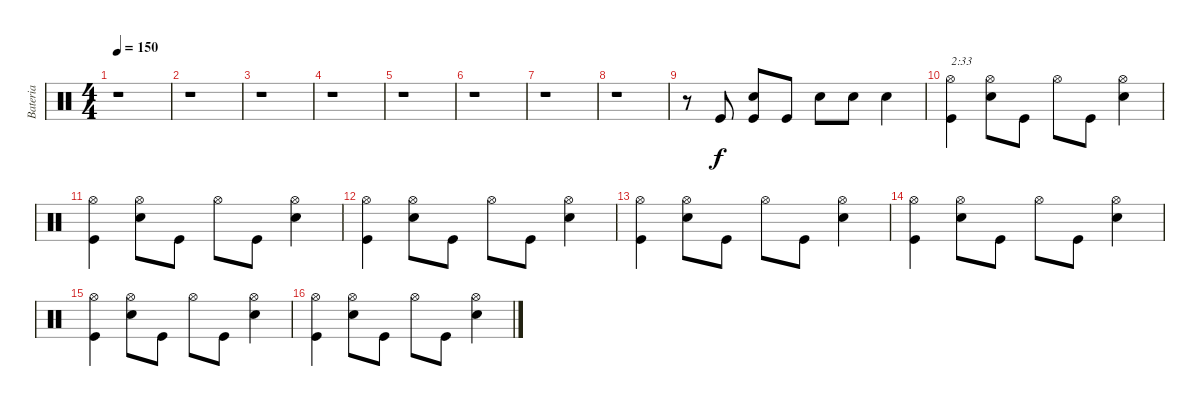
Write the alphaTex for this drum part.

\track ("Bateria" "Bateria") {instrument percussion}
\staff {score}
\articulation defaults
\ts (4 4)
\tempo 150
\clef neutral
\ks c
r.1{dy f} |
r.1 |
r.1 |
r.1 |
r.1 |
r.1 |
r.1 |
r.1 |
r.8 "Kick (hit)".8 ("Kick (hit)" "Snare (hit) 2").8 "Kick (hit)".8 "Snare (hit) 2".8 "Snare (hit) 2".8 "Snare (hit) 2".4 |
("Kick (hit)" "Hi-Hat (open)").4{txt "2:33"} ("Snare (hit) 2" "Hi-Hat (open)").8 "Kick (hit)".8 "Hi-Hat (open)".8 "Kick (hit)".8 ("Snare (hit) 2" "Hi-Hat (open)").4 |
("Kick (hit)" "Hi-Hat (open)").4 ("Snare (hit) 2" "Hi-Hat (open)").8 "Kick (hit)".8 "Hi-Hat (open)".8 "Kick (hit)".8 ("Snare (hit) 2" "Hi-Hat (open)").4 |
("Kick (hit)" "Hi-Hat (open)").4 ("Snare (hit) 2" "Hi-Hat (open)").8 "Kick (hit)".8 "Hi-Hat (open)".8 "Kick (hit)".8 ("Snare (hit) 2" "Hi-Hat (open)").4 |
("Kick (hit)" "Hi-Hat (open)").4 ("Snare (hit) 2" "Hi-Hat (open)").8 "Kick (hit)".8 "Hi-Hat (open)".8 "Kick (hit)".8 ("Snare (hit) 2" "Hi-Hat (open)").4 |
("Kick (hit)" "Hi-Hat (open)").4 ("Snare (hit) 2" "Hi-Hat (open)").8 "Kick (hit)".8 "Hi-Hat (open)".8 "Kick (hit)".8 ("Snare (hit) 2" "Hi-Hat (open)").4 |
("Kick (hit)" "Hi-Hat (open)").4 ("Snare (hit) 2" "Hi-Hat (open)").8 "Kick (hit)".8 "Hi-Hat (open)".8 "Kick (hit)".8 ("Snare (hit) 2" "Hi-Hat (open)").4 |
("Kick (hit)" "Hi-Hat (open)").4 ("Snare (hit) 2" "Hi-Hat (open)").8 "Kick (hit)".8 "Hi-Hat (open)".8 "Kick (hit)".8 ("Snare (hit) 2" "Hi-Hat (open)").4
